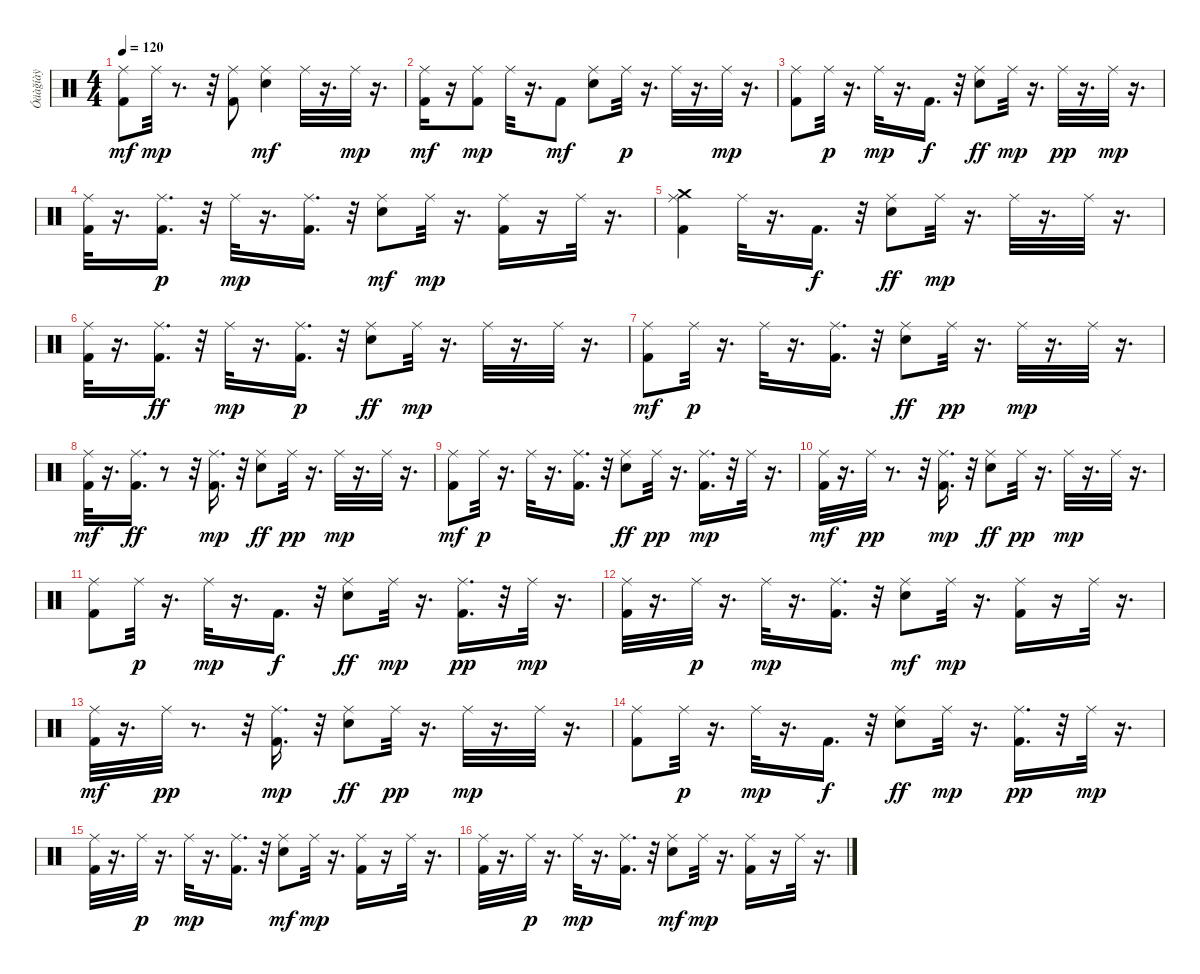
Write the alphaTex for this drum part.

\track ("Óäàğíàÿ" "Óäàğíàÿ") {instrument percussion}
\staff {score}
\articulation defaults
\ts (4 4)
\tempo 120
\clef neutral
\ks c
("Ride (middle)" "Kick (hit) 2").8{dy mf} "Ride (middle)".32{dy mp} r.8{d} r.32 ("Kick (hit) 2" "Ride (middle)").8 ("Snare (hit) 2" "Ride (middle)").4{dy mf} "Ride (middle)".32 r.16{d} "Ride (middle)".32{dy mp} r.16{d} |
("Ride (middle)" "Kick (hit) 2").16{dy mf} r.16 ("Kick (hit) 2" "Ride (middle)").8{dy mp} "Ride (middle)".32 r.16{d} "Kick (hit) 2".8{dy mf} ("Ride (middle)" "Snare (hit) 2").8 "Ride (middle)".32{dy p} r.16{d} "Ride (middle)".32 r.16{d} "Ride (middle)".32{dy mp} r.16{d} |
("Kick (hit) 2" "Ride (middle)").8 "Ride (middle)".32{dy p} r.16{d} "Ride (middle)".32{dy mp} r.16{d} "Kick (hit) 2".16{d dy f} r.32 ("Ride (middle)" "Snare (hit) 2").8{dy ff} "Ride (middle)".32{dy mp} r.16{d} "Ride (middle)".32{dy pp} r.16{d} "Ride (middle)".32{dy mp} r.16{d} |
("Kick (hit) 2" "Ride (middle)").32 r.16{d} ("Kick (hit) 2" "Ride (middle)").16{d dy p} r.32 "Ride (middle)".32{dy mp} r.16{d} ("Kick (hit) 2" "Ride (middle)").16{d} r.32 ("Snare (hit) 2" "Ride (middle)").8{dy mf} "Ride (middle)".32{dy mp} r.16{d} ("Kick (hit) 2" "Ride (middle)").16 r.16 "Ride (middle)".32 r.16{d} |
("Kick (hit) 2" "Crash medium (hit)" "Ride (middle)").4 "Ride (middle)".32 r.16{d} "Kick (hit) 2".16{d dy f} r.32 ("Ride (middle)" "Snare (hit) 2").8{dy ff} "Ride (middle)".32{dy mp} r.16{d} "Ride (middle)".32 r.16{d} "Ride (middle)".32 r.16{d} |
("Kick (hit) 2" "Ride (middle)").32 r.16{d} ("Ride (middle)" "Kick (hit) 2").16{d dy ff} r.32 "Ride (middle)".32{dy mp} r.16{d} ("Ride (middle)" "Kick (hit) 2").16{d dy p} r.32 ("Ride (middle)" "Snare (hit) 2").8{dy ff} "Ride (middle)".32{dy mp} r.16{d} "Ride (middle)".32 r.16{d} "Ride (middle)".32 r.16{d} |
("Ride (middle)" "Kick (hit) 2").8{dy mf} "Ride (middle)".32{dy p} r.16{d} "Ride (middle)".32 r.16{d} ("Ride (middle)" "Kick (hit) 2").16{d} r.32 ("Ride (middle)" "Snare (hit) 2").8{dy ff} "Ride (middle)".32{dy pp} r.16{d} "Ride (middle)".32{dy mp} r.16{d} "Ride (middle)".32 r.16{d} |
("Ride (middle)" "Kick (hit) 2").32{dy mf} r.16{d} ("Ride (middle)" "Kick (hit) 2").16{d dy ff} r.8 r.32 ("Ride (middle)" "Kick (hit) 2").16{d dy mp} r.32 ("Ride (middle)" "Snare (hit) 2").8{dy ff} "Ride (middle)".32{dy pp} r.16{d} "Ride (middle)".32{dy mp} r.16{d} "Ride (middle)".32 r.16{d} |
("Ride (middle)" "Kick (hit) 2").8{dy mf} "Ride (middle)".32{dy p} r.16{d} "Ride (middle)".32 r.16{d} ("Ride (middle)" "Kick (hit) 2").16{d} r.32 ("Ride (middle)" "Snare (hit) 2").8{dy ff} "Ride (middle)".32{dy pp} r.16{d} ("Kick (hit) 2" "Ride (middle)").16{d dy mp} r.32 "Ride (middle)".32 r.16{d} |
("Ride (middle)" "Kick (hit) 2").32{dy mf} r.16{d} "Ride (middle)".32{dy pp} r.8{d} r.32 ("Ride (middle)" "Kick (hit) 2").16{d dy mp} r.32 ("Ride (middle)" "Snare (hit) 2").8{dy ff} "Ride (middle)".32{dy pp} r.16{d} "Ride (middle)".32{dy mp} r.16{d} "Ride (middle)".32 r.16{d} |
("Kick (hit) 2" "Ride (middle)").8 "Ride (middle)".32{dy p} r.16{d} "Ride (middle)".32{dy mp} r.16{d} "Kick (hit) 2".16{d dy f} r.32 ("Ride (middle)" "Snare (hit) 2").8{dy ff} "Ride (middle)".32{dy mp} r.16{d} ("Kick (hit) 2" "Ride (middle)").16{d dy pp} r.32 "Ride (middle)".32{dy mp} r.16{d} |
("Kick (hit) 2" "Ride (middle)").32 r.16{d} "Ride (middle)".32{dy p} r.16{d} "Ride (middle)".32{dy mp} r.16{d} ("Kick (hit) 2" "Ride (middle)").16{d} r.32 ("Snare (hit) 2" "Ride (middle)").8{dy mf} "Ride (middle)".32{dy mp} r.16{d} ("Kick (hit) 2" "Ride (middle)").16 r.16 "Ride (middle)".32 r.16{d} |
("Ride (middle)" "Kick (hit) 2").32{dy mf} r.16{d} "Ride (middle)".32{dy pp} r.8{d} r.32 ("Ride (middle)" "Kick (hit) 2").16{d dy mp} r.32 ("Ride (middle)" "Snare (hit) 2").8{dy ff} "Ride (middle)".32{dy pp} r.16{d} "Ride (middle)".32{dy mp} r.16{d} "Ride (middle)".32 r.16{d} |
("Kick (hit) 2" "Ride (middle)").8 "Ride (middle)".32{dy p} r.16{d} "Ride (middle)".32{dy mp} r.16{d} "Kick (hit) 2".16{d dy f} r.32 ("Ride (middle)" "Snare (hit) 2").8{dy ff} "Ride (middle)".32{dy mp} r.16{d} ("Kick (hit) 2" "Ride (middle)").16{d dy pp} r.32 "Ride (middle)".32{dy mp} r.16{d} |
("Kick (hit) 2" "Ride (middle)").32 r.16{d} "Ride (middle)".32{dy p} r.16{d} "Ride (middle)".32{dy mp} r.16{d} ("Kick (hit) 2" "Ride (middle)").16{d} r.32 ("Snare (hit) 2" "Ride (middle)").8{dy mf} "Ride (middle)".32{dy mp} r.16{d} ("Kick (hit) 2" "Ride (middle)").16 r.16 "Ride (middle)".32 r.16{d} |
("Kick (hit) 2" "Ride (middle)").32 r.16{d} "Ride (middle)".32{dy p} r.16{d} "Ride (middle)".32{dy mp} r.16{d} ("Kick (hit) 2" "Ride (middle)").16{d} r.32 ("Snare (hit) 2" "Ride (middle)").8{dy mf} "Ride (middle)".32{dy mp} r.16{d} ("Kick (hit) 2" "Ride (middle)").16 r.16 "Ride (middle)".32 r.16{d}
